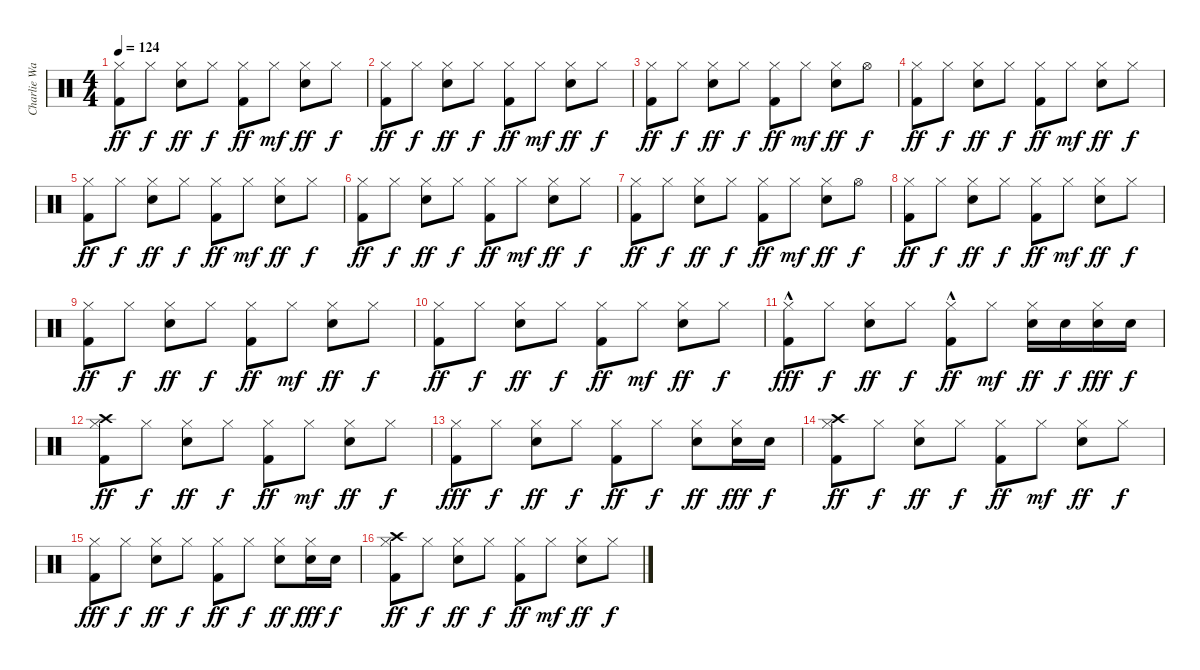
\track ("Charlie Watts" "Charlie Wa") {instrument percussion}
\staff {score}
\articulation defaults
\ts (4 4)
\tempo 124
\clef neutral
\ks c
("Kick (hit) 2" "Hi-Hat (closed)").8{dy ff} "Hi-Hat (closed)".8{dy f} ("Snare (hit) 2" "Hi-Hat (closed)").8{dy ff} "Hi-Hat (closed)".8{dy f} ("Kick (hit) 2" "Hi-Hat (closed)").8{dy ff} "Hi-Hat (closed)".8{dy mf} ("Snare (hit) 2" "Hi-Hat (closed)").8{dy ff} "Hi-Hat (closed)".8{dy f} |
("Kick (hit) 2" "Hi-Hat (closed)").8{dy ff} "Hi-Hat (closed)".8{dy f} ("Snare (hit) 2" "Hi-Hat (closed)").8{dy ff} "Hi-Hat (closed)".8{dy f} ("Kick (hit) 2" "Hi-Hat (closed)").8{dy ff} "Hi-Hat (closed)".8{dy mf} ("Snare (hit) 2" "Hi-Hat (closed)").8{dy ff} "Hi-Hat (closed)".8{dy f} |
("Kick (hit) 2" "Hi-Hat (closed)").8{dy ff} "Hi-Hat (closed)".8{dy f} ("Snare (hit) 2" "Hi-Hat (closed)").8{dy ff} "Hi-Hat (closed)".8{dy f} ("Kick (hit) 2" "Hi-Hat (closed)").8{dy ff} "Hi-Hat (closed)".8{dy mf} ("Snare (hit) 2" "Hi-Hat (closed)").8{dy ff} "Hi-Hat (open)".8{dy f} |
("Kick (hit) 2" "Hi-Hat (closed)").8{dy ff} "Hi-Hat (closed)".8{dy f} ("Snare (hit) 2" "Hi-Hat (closed)").8{dy ff} "Hi-Hat (closed)".8{dy f} ("Kick (hit) 2" "Hi-Hat (closed)").8{dy ff} "Hi-Hat (closed)".8{dy mf} ("Snare (hit) 2" "Hi-Hat (closed)").8{dy ff} "Hi-Hat (closed)".8{dy f} |
("Kick (hit) 2" "Hi-Hat (closed)").8{dy ff} "Hi-Hat (closed)".8{dy f} ("Snare (hit) 2" "Hi-Hat (closed)").8{dy ff} "Hi-Hat (closed)".8{dy f} ("Kick (hit) 2" "Hi-Hat (closed)").8{dy ff} "Hi-Hat (closed)".8{dy mf} ("Snare (hit) 2" "Hi-Hat (closed)").8{dy ff} "Hi-Hat (closed)".8{dy f} |
("Kick (hit) 2" "Hi-Hat (closed)").8{dy ff} "Hi-Hat (closed)".8{dy f} ("Snare (hit) 2" "Hi-Hat (closed)").8{dy ff} "Hi-Hat (closed)".8{dy f} ("Kick (hit) 2" "Hi-Hat (closed)").8{dy ff} "Hi-Hat (closed)".8{dy mf} ("Snare (hit) 2" "Hi-Hat (closed)").8{dy ff} "Hi-Hat (closed)".8{dy f} |
("Kick (hit) 2" "Hi-Hat (closed)").8{dy ff} "Hi-Hat (closed)".8{dy f} ("Snare (hit) 2" "Hi-Hat (closed)").8{dy ff} "Hi-Hat (closed)".8{dy f} ("Kick (hit) 2" "Hi-Hat (closed)").8{dy ff} "Hi-Hat (closed)".8{dy mf} ("Snare (hit) 2" "Hi-Hat (closed)").8{dy ff} "Hi-Hat (open)".8{dy f} |
("Kick (hit) 2" "Hi-Hat (closed)").8{dy ff} "Hi-Hat (closed)".8{dy f} ("Snare (hit) 2" "Hi-Hat (closed)").8{dy ff} "Hi-Hat (closed)".8{dy f} ("Kick (hit) 2" "Hi-Hat (closed)").8{dy ff} "Hi-Hat (closed)".8{dy mf} ("Snare (hit) 2" "Hi-Hat (closed)").8{dy ff} "Hi-Hat (closed)".8{dy f} |
("Kick (hit) 2" "Hi-Hat (closed)").8{dy ff} "Hi-Hat (closed)".8{dy f} ("Snare (hit) 2" "Hi-Hat (closed)").8{dy ff} "Hi-Hat (closed)".8{dy f} ("Kick (hit) 2" "Hi-Hat (closed)").8{dy ff} "Hi-Hat (closed)".8{dy mf} ("Snare (hit) 2" "Hi-Hat (closed)").8{dy ff} "Hi-Hat (closed)".8{dy f} |
("Kick (hit) 2" "Hi-Hat (closed)").8{dy ff} "Hi-Hat (closed)".8{dy f} ("Snare (hit) 2" "Hi-Hat (closed)").8{dy ff} "Hi-Hat (closed)".8{dy f} ("Kick (hit) 2" "Hi-Hat (closed)").8{dy ff} "Hi-Hat (closed)".8{dy mf} ("Snare (hit) 2" "Hi-Hat (closed)").8{dy ff} "Hi-Hat (closed)".8{dy f} |
("Kick (hit) 2"{hac} "Hi-Hat (closed)").8{dy fff} "Hi-Hat (closed)".8{dy f} ("Snare (hit) 2" "Hi-Hat (closed)").8{dy ff} "Hi-Hat (closed)".8{dy f} ("Kick (hit) 2"{hac} "Hi-Hat (closed)").8{dy ff} "Hi-Hat (closed)".8{dy mf} ("Hi-Hat (closed)" "Snare (hit) 2").16{dy ff} "Snare (hit) 2".16{dy f} ("Hi-Hat (closed)" "Snare (hit) 2").16{dy fff} "Snare (hit) 2".16{dy f} |
("Kick (hit) 2" "Hi-Hat (closed)" "Crash high (hit)").8{dy ff} "Hi-Hat (closed)".8{dy f} ("Snare (hit) 2" "Hi-Hat (closed)").8{dy ff} "Hi-Hat (closed)".8{dy f} ("Kick (hit) 2" "Hi-Hat (closed)").8{dy ff} "Hi-Hat (closed)".8{dy mf} ("Snare (hit) 2" "Hi-Hat (closed)").8{dy ff} "Hi-Hat (closed)".8{dy f} |
("Kick (hit) 2" "Hi-Hat (closed)").8{dy fff} "Hi-Hat (closed)".8{dy f} ("Snare (hit) 2" "Hi-Hat (closed)").8{dy ff} "Hi-Hat (closed)".8{dy f} ("Kick (hit) 2" "Hi-Hat (closed)").8{dy ff} "Hi-Hat (closed)".8{dy f} ("Snare (hit) 2" "Hi-Hat (closed)").8{dy ff} ("Hi-Hat (closed)" "Snare (hit) 2").16{dy fff} "Snare (hit) 2".16{dy f} |
("Kick (hit) 2" "Hi-Hat (closed)" "Crash high (hit)").8{dy ff} "Hi-Hat (closed)".8{dy f} ("Snare (hit) 2" "Hi-Hat (closed)").8{dy ff} "Hi-Hat (closed)".8{dy f} ("Kick (hit) 2" "Hi-Hat (closed)").8{dy ff} "Hi-Hat (closed)".8{dy mf} ("Snare (hit) 2" "Hi-Hat (closed)").8{dy ff} "Hi-Hat (closed)".8{dy f} |
("Kick (hit) 2" "Hi-Hat (closed)").8{dy fff} "Hi-Hat (closed)".8{dy f} ("Snare (hit) 2" "Hi-Hat (closed)").8{dy ff} "Hi-Hat (closed)".8{dy f} ("Kick (hit) 2" "Hi-Hat (closed)").8{dy ff} "Hi-Hat (closed)".8{dy f} ("Snare (hit) 2" "Hi-Hat (closed)").8{dy ff} ("Hi-Hat (closed)" "Snare (hit) 2").16{dy fff} "Snare (hit) 2".16{dy f} |
("Kick (hit) 2" "Hi-Hat (closed)" "Crash high (hit)").8{dy ff} "Hi-Hat (closed)".8{dy f} ("Snare (hit) 2" "Hi-Hat (closed)").8{dy ff} "Hi-Hat (closed)".8{dy f} ("Kick (hit) 2" "Hi-Hat (closed)").8{dy ff} "Hi-Hat (closed)".8{dy mf} ("Snare (hit) 2" "Hi-Hat (closed)").8{dy ff} "Hi-Hat (closed)".8{dy f}
